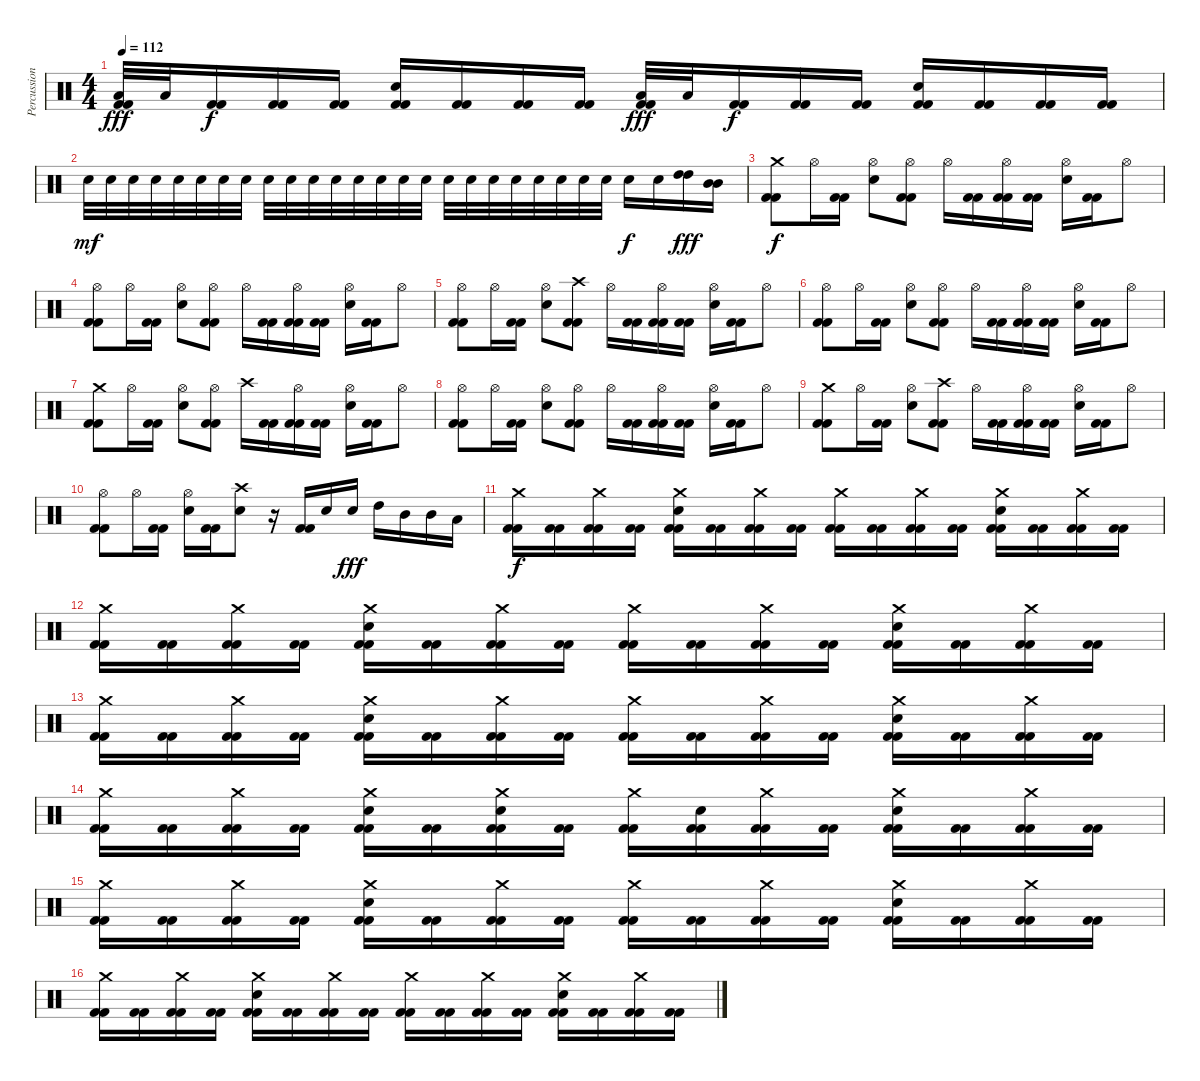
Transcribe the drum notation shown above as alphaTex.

\track ("Percussion" "Percussion") {instrument percussion}
\staff {score}
\articulation defaults
\ts (4 4)
\tempo 112
\clef neutral
\ks c
("Kick (hit) 2" "Kick (hit) 2" "Low Tom (hit)").32{dy fff} "Low Tom (hit)".32 ("Kick (hit) 2" "Kick (hit) 2").16{dy f} ("Kick (hit) 2" "Kick (hit) 2").16 ("Kick (hit) 2" "Kick (hit) 2").16 ("Kick (hit) 2" "Kick (hit) 2" "Electric Snare (hit)").16 ("Kick (hit) 2" "Kick (hit) 2").16 ("Kick (hit) 2" "Kick (hit) 2").16 ("Kick (hit) 2" "Kick (hit) 2").16 ("Kick (hit) 2" "Kick (hit) 2" "Low Tom (hit)").32{dy fff} "Low Tom (hit)".32 ("Kick (hit) 2" "Kick (hit) 2").16{dy f} ("Kick (hit) 2" "Kick (hit) 2").16 ("Kick (hit) 2" "Kick (hit) 2").16 ("Kick (hit) 2" "Kick (hit) 2" "Electric Snare (hit)").16 ("Kick (hit) 2" "Kick (hit) 2").16 ("Kick (hit) 2" "Kick (hit) 2").16 ("Kick (hit) 2" "Kick (hit) 2").16 |
"Electric Snare (hit)".32{dy mf} "Electric Snare (hit)".32 "Electric Snare (hit)".32 "Electric Snare (hit)".32 "Electric Snare (hit)".32 "Electric Snare (hit)".32 "Electric Snare (hit)".32 "Electric Snare (hit)".32 "Electric Snare (hit)".32 "Electric Snare (hit)".32 "Electric Snare (hit)".32 "Electric Snare (hit)".32 "Electric Snare (hit)".32 "Electric Snare (hit)".32 "Electric Snare (hit)".32 "Electric Snare (hit)".32 "Electric Snare (hit)".32 "Electric Snare (hit)".32 "Electric Snare (hit)".32 "Electric Snare (hit)".32 "Electric Snare (hit)".32 "Electric Snare (hit)".32 "Electric Snare (hit)".32 "Electric Snare (hit)".32 "Electric Snare (hit)".16{dy f} "Electric Snare (hit)".16 ("High Tom (hit)" "High Tom (hit)").16{dy fff} ("Mid Tom (hit)" "Mid Tom (hit)").16 |
("Kick (hit) 2" "Kick (hit) 2" "Crash medium (hit)").8{dy f} "Hi-Hat (open)".16 ("Kick (hit) 2" "Kick (hit) 2").16 ("Hi-Hat (open)" "Electric Snare (hit)").8 ("Kick (hit) 2" "Kick (hit) 2" "Hi-Hat (open)").8 "Hi-Hat (open)".16 ("Kick (hit) 2" "Kick (hit) 2").16 ("Kick (hit) 2" "Kick (hit) 2" "Hi-Hat (open)").16 ("Kick (hit) 2" "Kick (hit) 2").16 ("Hi-Hat (open)" "Electric Snare (hit)").16 ("Kick (hit) 2" "Kick (hit) 2").16 "Hi-Hat (open)".8 |
("Kick (hit) 2" "Kick (hit) 2" "Hi-Hat (open)").8 "Hi-Hat (open)".16 ("Kick (hit) 2" "Kick (hit) 2").16 ("Hi-Hat (open)" "Electric Snare (hit)").8 ("Kick (hit) 2" "Kick (hit) 2" "Hi-Hat (open)").8 "Hi-Hat (open)".16 ("Kick (hit) 2" "Kick (hit) 2").16 ("Kick (hit) 2" "Kick (hit) 2" "Hi-Hat (open)").16 ("Kick (hit) 2" "Kick (hit) 2").16 ("Hi-Hat (open)" "Electric Snare (hit)").16 ("Kick (hit) 2" "Kick (hit) 2").16 "Hi-Hat (open)".8 |
("Kick (hit) 2" "Kick (hit) 2" "Hi-Hat (open)").8 "Hi-Hat (open)".16 ("Kick (hit) 2" "Kick (hit) 2").16 ("Hi-Hat (open)" "Electric Snare (hit)").8 ("Kick (hit) 2" "Kick (hit) 2" "Crash high (hit)").8 "Hi-Hat (open)".16 ("Kick (hit) 2" "Kick (hit) 2").16 ("Kick (hit) 2" "Kick (hit) 2" "Hi-Hat (open)").16 ("Kick (hit) 2" "Kick (hit) 2").16 ("Hi-Hat (open)" "Electric Snare (hit)").16 ("Kick (hit) 2" "Kick (hit) 2").16 "Hi-Hat (open)".8 |
("Kick (hit) 2" "Kick (hit) 2" "Hi-Hat (open)").8 "Hi-Hat (open)".16 ("Kick (hit) 2" "Kick (hit) 2").16 ("Hi-Hat (open)" "Electric Snare (hit)").8 ("Kick (hit) 2" "Kick (hit) 2" "Hi-Hat (open)").8 "Hi-Hat (open)".16 ("Kick (hit) 2" "Kick (hit) 2").16 ("Kick (hit) 2" "Kick (hit) 2" "Hi-Hat (open)").16 ("Kick (hit) 2" "Kick (hit) 2").16 ("Hi-Hat (open)" "Electric Snare (hit)").16 ("Kick (hit) 2" "Kick (hit) 2").16 "Hi-Hat (open)".8 |
("Kick (hit) 2" "Kick (hit) 2" "Crash medium (hit)").8 "Hi-Hat (open)".16 ("Kick (hit) 2" "Kick (hit) 2").16 ("Hi-Hat (open)" "Electric Snare (hit)").8 ("Kick (hit) 2" "Kick (hit) 2" "Hi-Hat (open)").8 "Crash high (hit)".16 ("Kick (hit) 2" "Kick (hit) 2").16 ("Kick (hit) 2" "Kick (hit) 2" "Hi-Hat (open)").16 ("Kick (hit) 2" "Kick (hit) 2").16 ("Hi-Hat (open)" "Electric Snare (hit)").16 ("Kick (hit) 2" "Kick (hit) 2").16 "Hi-Hat (open)".8 |
("Kick (hit) 2" "Kick (hit) 2" "Hi-Hat (open)").8 "Hi-Hat (open)".16 ("Kick (hit) 2" "Kick (hit) 2").16 ("Hi-Hat (open)" "Electric Snare (hit)").8 ("Kick (hit) 2" "Kick (hit) 2" "Hi-Hat (open)").8 "Hi-Hat (open)".16 ("Kick (hit) 2" "Kick (hit) 2").16 ("Kick (hit) 2" "Kick (hit) 2" "Hi-Hat (open)").16 ("Kick (hit) 2" "Kick (hit) 2").16 ("Hi-Hat (open)" "Electric Snare (hit)").16 ("Kick (hit) 2" "Kick (hit) 2").16 "Hi-Hat (open)".8 |
("Kick (hit) 2" "Kick (hit) 2" "Crash medium (hit)").8 "Hi-Hat (open)".16 ("Kick (hit) 2" "Kick (hit) 2").16 ("Hi-Hat (open)" "Electric Snare (hit)").8 ("Kick (hit) 2" "Kick (hit) 2" "Crash high (hit)").8 "Hi-Hat (open)".16 ("Kick (hit) 2" "Kick (hit) 2").16 ("Kick (hit) 2" "Kick (hit) 2" "Hi-Hat (open)").16 ("Kick (hit) 2" "Kick (hit) 2").16 ("Hi-Hat (open)" "Electric Snare (hit)").16 ("Kick (hit) 2" "Kick (hit) 2").16 "Hi-Hat (open)".8 |
("Kick (hit) 2" "Kick (hit) 2" "Hi-Hat (open)").8 "Hi-Hat (open)".16 ("Kick (hit) 2" "Kick (hit) 2").16 ("Hi-Hat (open)" "Electric Snare (hit)").16 ("Kick (hit) 2" "Kick (hit) 2").16 ("Electric Snare (hit)" "Crash high (hit)").8 r.16 ("Kick (hit) 2" "Kick (hit) 2").16 "Electric Snare (hit)".16 "Electric Snare (hit)".16{dy fff} "High Tom (hit)".16 "Mid Tom (hit)".16 "Mid Tom (hit)".16 "Low Tom (hit)".16 |
("Kick (hit) 2" "Kick (hit) 2" "Crash medium (hit)").16{dy f} ("Kick (hit) 2" "Kick (hit) 2").16 ("Kick (hit) 2" "Kick (hit) 2" "Crash medium (hit)").16 ("Kick (hit) 2" "Kick (hit) 2").16 ("Kick (hit) 2" "Kick (hit) 2" "Crash medium (hit)" "Electric Snare (hit)").16 ("Kick (hit) 2" "Kick (hit) 2").16 ("Kick (hit) 2" "Kick (hit) 2" "Crash medium (hit)").16 ("Kick (hit) 2" "Kick (hit) 2").16 ("Kick (hit) 2" "Kick (hit) 2" "Crash medium (hit)").16 ("Kick (hit) 2" "Kick (hit) 2").16 ("Kick (hit) 2" "Kick (hit) 2" "Crash medium (hit)").16 ("Kick (hit) 2" "Kick (hit) 2").16 ("Kick (hit) 2" "Kick (hit) 2" "Crash medium (hit)" "Electric Snare (hit)").16 ("Kick (hit) 2" "Kick (hit) 2").16 ("Kick (hit) 2" "Kick (hit) 2" "Crash medium (hit)").16 ("Kick (hit) 2" "Kick (hit) 2").16 |
("Kick (hit) 2" "Kick (hit) 2" "Crash medium (hit)").16 ("Kick (hit) 2" "Kick (hit) 2").16 ("Kick (hit) 2" "Kick (hit) 2" "Crash medium (hit)").16 ("Kick (hit) 2" "Kick (hit) 2").16 ("Kick (hit) 2" "Kick (hit) 2" "Crash medium (hit)" "Electric Snare (hit)").16 ("Kick (hit) 2" "Kick (hit) 2").16 ("Kick (hit) 2" "Kick (hit) 2" "Crash medium (hit)").16 ("Kick (hit) 2" "Kick (hit) 2").16 ("Kick (hit) 2" "Kick (hit) 2" "Crash medium (hit)").16 ("Kick (hit) 2" "Kick (hit) 2").16 ("Kick (hit) 2" "Kick (hit) 2" "Crash medium (hit)").16 ("Kick (hit) 2" "Kick (hit) 2").16 ("Kick (hit) 2" "Kick (hit) 2" "Crash medium (hit)" "Electric Snare (hit)").16 ("Kick (hit) 2" "Kick (hit) 2").16 ("Kick (hit) 2" "Kick (hit) 2" "Crash medium (hit)").16 ("Kick (hit) 2" "Kick (hit) 2").16 |
("Kick (hit) 2" "Kick (hit) 2" "Crash medium (hit)").16 ("Kick (hit) 2" "Kick (hit) 2").16 ("Kick (hit) 2" "Kick (hit) 2" "Crash medium (hit)").16 ("Kick (hit) 2" "Kick (hit) 2").16 ("Kick (hit) 2" "Kick (hit) 2" "Crash medium (hit)" "Electric Snare (hit)").16 ("Kick (hit) 2" "Kick (hit) 2").16 ("Kick (hit) 2" "Kick (hit) 2" "Crash medium (hit)").16 ("Kick (hit) 2" "Kick (hit) 2").16 ("Kick (hit) 2" "Kick (hit) 2" "Crash medium (hit)").16 ("Kick (hit) 2" "Kick (hit) 2").16 ("Kick (hit) 2" "Kick (hit) 2" "Crash medium (hit)").16 ("Kick (hit) 2" "Kick (hit) 2").16 ("Kick (hit) 2" "Kick (hit) 2" "Crash medium (hit)" "Electric Snare (hit)").16 ("Kick (hit) 2" "Kick (hit) 2").16 ("Kick (hit) 2" "Kick (hit) 2" "Crash medium (hit)").16 ("Kick (hit) 2" "Kick (hit) 2").16 |
("Kick (hit) 2" "Kick (hit) 2" "Crash medium (hit)").16 ("Kick (hit) 2" "Kick (hit) 2").16 ("Kick (hit) 2" "Kick (hit) 2" "Crash medium (hit)").16 ("Kick (hit) 2" "Kick (hit) 2").16 ("Kick (hit) 2" "Kick (hit) 2" "Crash medium (hit)" "Electric Snare (hit)").16 ("Kick (hit) 2" "Kick (hit) 2").16 ("Kick (hit) 2" "Kick (hit) 2" "Crash medium (hit)" "Electric Snare (hit)").16 ("Kick (hit) 2" "Kick (hit) 2").16 ("Kick (hit) 2" "Kick (hit) 2" "Crash medium (hit)").16 ("Kick (hit) 2" "Kick (hit) 2" "Electric Snare (hit)").16 ("Kick (hit) 2" "Kick (hit) 2" "Crash medium (hit)").16 ("Kick (hit) 2" "Kick (hit) 2").16 ("Kick (hit) 2" "Kick (hit) 2" "Crash medium (hit)" "Electric Snare (hit)").16 ("Kick (hit) 2" "Kick (hit) 2").16 ("Kick (hit) 2" "Kick (hit) 2" "Crash medium (hit)").16 ("Kick (hit) 2" "Kick (hit) 2").16 |
("Kick (hit) 2" "Kick (hit) 2" "Crash medium (hit)").16 ("Kick (hit) 2" "Kick (hit) 2").16 ("Kick (hit) 2" "Kick (hit) 2" "Crash medium (hit)").16 ("Kick (hit) 2" "Kick (hit) 2").16 ("Kick (hit) 2" "Kick (hit) 2" "Crash medium (hit)" "Electric Snare (hit)").16 ("Kick (hit) 2" "Kick (hit) 2").16 ("Kick (hit) 2" "Kick (hit) 2" "Crash medium (hit)").16 ("Kick (hit) 2" "Kick (hit) 2").16 ("Kick (hit) 2" "Kick (hit) 2" "Crash medium (hit)").16 ("Kick (hit) 2" "Kick (hit) 2").16 ("Kick (hit) 2" "Kick (hit) 2" "Crash medium (hit)").16 ("Kick (hit) 2" "Kick (hit) 2").16 ("Kick (hit) 2" "Kick (hit) 2" "Crash medium (hit)" "Electric Snare (hit)").16 ("Kick (hit) 2" "Kick (hit) 2").16 ("Kick (hit) 2" "Kick (hit) 2" "Crash medium (hit)").16 ("Kick (hit) 2" "Kick (hit) 2").16 |
("Kick (hit) 2" "Kick (hit) 2" "Crash medium (hit)").16 ("Kick (hit) 2" "Kick (hit) 2").16 ("Kick (hit) 2" "Kick (hit) 2" "Crash medium (hit)").16 ("Kick (hit) 2" "Kick (hit) 2").16 ("Kick (hit) 2" "Kick (hit) 2" "Crash medium (hit)" "Electric Snare (hit)").16 ("Kick (hit) 2" "Kick (hit) 2").16 ("Kick (hit) 2" "Kick (hit) 2" "Crash medium (hit)").16 ("Kick (hit) 2" "Kick (hit) 2").16 ("Kick (hit) 2" "Kick (hit) 2" "Crash medium (hit)").16 ("Kick (hit) 2" "Kick (hit) 2").16 ("Kick (hit) 2" "Kick (hit) 2" "Crash medium (hit)").16 ("Kick (hit) 2" "Kick (hit) 2").16 ("Kick (hit) 2" "Kick (hit) 2" "Crash medium (hit)" "Electric Snare (hit)").16 ("Kick (hit) 2" "Kick (hit) 2").16 ("Kick (hit) 2" "Kick (hit) 2" "Crash medium (hit)").16 ("Kick (hit) 2" "Kick (hit) 2").16
